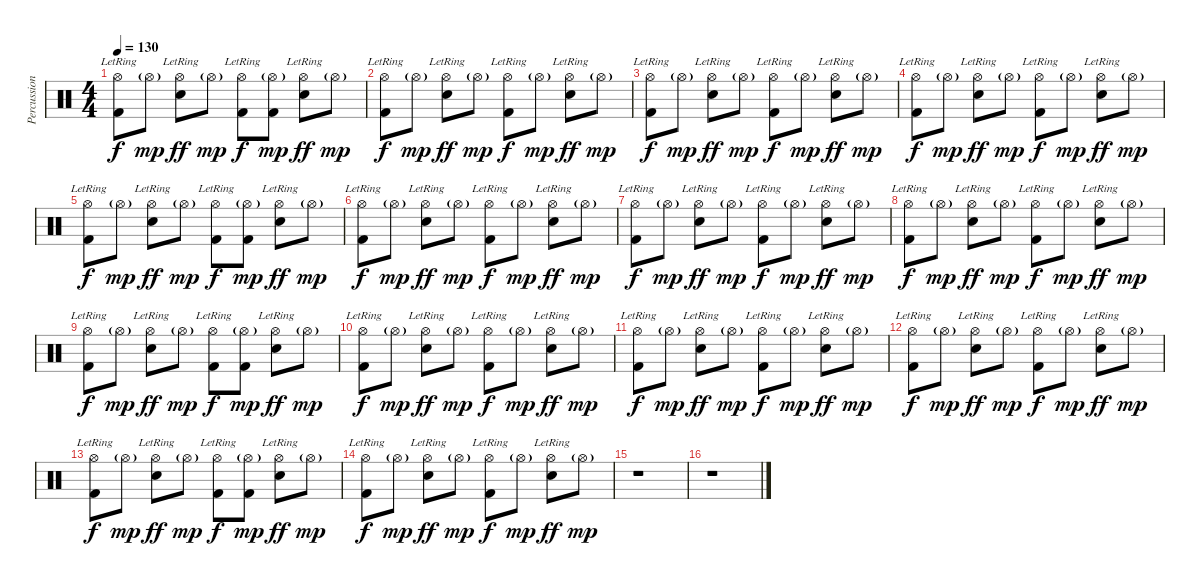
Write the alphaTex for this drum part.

\track ("Percussion" "Percussion") {instrument percussion}
\staff {score}
\articulation defaults
\ts (4 4)
\tempo 130
\clef neutral
\ks c
("Hi-Hat (open)"{lr} "Kick (hit) 2").8{dy f} "Hi-Hat (open)"{g}.8{dy mp} ("Hi-Hat (open)"{lr} "Snare (hit) 2").8{dy ff} "Hi-Hat (open)"{g}.8{dy mp} ("Hi-Hat (open)"{lr} "Kick (hit) 2").8{dy f} ("Hi-Hat (open)"{g} "Kick (hit) 2").8{dy mp} ("Hi-Hat (open)"{lr} "Snare (hit) 2").8{dy ff} "Hi-Hat (open)"{g}.8{dy mp} |
("Hi-Hat (open)"{lr} "Kick (hit) 2").8{dy f} "Hi-Hat (open)"{g}.8{dy mp} ("Hi-Hat (open)"{lr} "Snare (hit) 2").8{dy ff} "Hi-Hat (open)"{g}.8{dy mp} ("Hi-Hat (open)"{lr} "Kick (hit) 2").8{dy f} "Hi-Hat (open)"{g}.8{dy mp} ("Hi-Hat (open)"{lr} "Snare (hit) 2").8{dy ff} "Hi-Hat (open)"{g}.8{dy mp} |
("Hi-Hat (open)"{lr} "Kick (hit) 2").8{dy f} "Hi-Hat (open)"{g}.8{dy mp} ("Hi-Hat (open)"{lr} "Snare (hit) 2").8{dy ff} "Hi-Hat (open)"{g}.8{dy mp} ("Hi-Hat (open)"{lr} "Kick (hit) 2").8{dy f} "Hi-Hat (open)"{g}.8{dy mp} ("Hi-Hat (open)"{lr} "Snare (hit) 2").8{dy ff} "Hi-Hat (open)"{g}.8{dy mp} |
("Hi-Hat (open)"{lr} "Kick (hit) 2").8{dy f} "Hi-Hat (open)"{g}.8{dy mp} ("Hi-Hat (open)"{lr} "Snare (hit) 2").8{dy ff} "Hi-Hat (open)"{g}.8{dy mp} ("Hi-Hat (open)"{lr} "Kick (hit) 2").8{dy f} "Hi-Hat (open)"{g}.8{dy mp} ("Hi-Hat (open)"{lr} "Snare (hit) 2").8{dy ff} "Hi-Hat (open)"{g}.8{dy mp} |
("Hi-Hat (open)"{lr} "Kick (hit) 2").8{dy f} "Hi-Hat (open)"{g}.8{dy mp} ("Hi-Hat (open)"{lr} "Snare (hit) 2").8{dy ff} "Hi-Hat (open)"{g}.8{dy mp} ("Hi-Hat (open)"{lr} "Kick (hit) 2").8{dy f} ("Hi-Hat (open)"{g} "Kick (hit) 2").8{dy mp} ("Hi-Hat (open)"{lr} "Snare (hit) 2").8{dy ff} "Hi-Hat (open)"{g}.8{dy mp} |
("Hi-Hat (open)"{lr} "Kick (hit) 2").8{dy f} "Hi-Hat (open)"{g}.8{dy mp} ("Hi-Hat (open)"{lr} "Snare (hit) 2").8{dy ff} "Hi-Hat (open)"{g}.8{dy mp} ("Hi-Hat (open)"{lr} "Kick (hit) 2").8{dy f} "Hi-Hat (open)"{g}.8{dy mp} ("Hi-Hat (open)"{lr} "Snare (hit) 2").8{dy ff} "Hi-Hat (open)"{g}.8{dy mp} |
("Hi-Hat (open)"{lr} "Kick (hit) 2").8{dy f} "Hi-Hat (open)"{g}.8{dy mp} ("Hi-Hat (open)"{lr} "Snare (hit) 2").8{dy ff} "Hi-Hat (open)"{g}.8{dy mp} ("Hi-Hat (open)"{lr} "Kick (hit) 2").8{dy f} "Hi-Hat (open)"{g}.8{dy mp} ("Hi-Hat (open)"{lr} "Snare (hit) 2").8{dy ff} "Hi-Hat (open)"{g}.8{dy mp} |
("Hi-Hat (open)"{lr} "Kick (hit) 2").8{dy f} "Hi-Hat (open)"{g}.8{dy mp} ("Hi-Hat (open)"{lr} "Snare (hit) 2").8{dy ff} "Hi-Hat (open)"{g}.8{dy mp} ("Hi-Hat (open)"{lr} "Kick (hit) 2").8{dy f} "Hi-Hat (open)"{g}.8{dy mp} ("Hi-Hat (open)"{lr} "Snare (hit) 2").8{dy ff} "Hi-Hat (open)"{g}.8{dy mp} |
("Hi-Hat (open)"{lr} "Kick (hit) 2").8{dy f} "Hi-Hat (open)"{g}.8{dy mp} ("Hi-Hat (open)"{lr} "Snare (hit) 2").8{dy ff} "Hi-Hat (open)"{g}.8{dy mp} ("Hi-Hat (open)"{lr} "Kick (hit) 2").8{dy f} ("Hi-Hat (open)"{g} "Kick (hit) 2").8{dy mp} ("Hi-Hat (open)"{lr} "Snare (hit) 2").8{dy ff} "Hi-Hat (open)"{g}.8{dy mp} |
("Hi-Hat (open)"{lr} "Kick (hit) 2").8{dy f} "Hi-Hat (open)"{g}.8{dy mp} ("Hi-Hat (open)"{lr} "Snare (hit) 2").8{dy ff} "Hi-Hat (open)"{g}.8{dy mp} ("Hi-Hat (open)"{lr} "Kick (hit) 2").8{dy f} "Hi-Hat (open)"{g}.8{dy mp} ("Hi-Hat (open)"{lr} "Snare (hit) 2").8{dy ff} "Hi-Hat (open)"{g}.8{dy mp} |
("Hi-Hat (open)"{lr} "Kick (hit) 2").8{dy f} "Hi-Hat (open)"{g}.8{dy mp} ("Hi-Hat (open)"{lr} "Snare (hit) 2").8{dy ff} "Hi-Hat (open)"{g}.8{dy mp} ("Hi-Hat (open)"{lr} "Kick (hit) 2").8{dy f} "Hi-Hat (open)"{g}.8{dy mp} ("Hi-Hat (open)"{lr} "Snare (hit) 2").8{dy ff} "Hi-Hat (open)"{g}.8{dy mp} |
("Hi-Hat (open)"{lr} "Kick (hit) 2").8{dy f} "Hi-Hat (open)"{g}.8{dy mp} ("Hi-Hat (open)"{lr} "Snare (hit) 2").8{dy ff} "Hi-Hat (open)"{g}.8{dy mp} ("Hi-Hat (open)"{lr} "Kick (hit) 2").8{dy f} "Hi-Hat (open)"{g}.8{dy mp} ("Hi-Hat (open)"{lr} "Snare (hit) 2").8{dy ff} "Hi-Hat (open)"{g}.8{dy mp} |
("Hi-Hat (open)"{lr} "Kick (hit) 2").8{dy f} "Hi-Hat (open)"{g}.8{dy mp} ("Hi-Hat (open)"{lr} "Snare (hit) 2").8{dy ff} "Hi-Hat (open)"{g}.8{dy mp} ("Hi-Hat (open)"{lr} "Kick (hit) 2").8{dy f} ("Hi-Hat (open)"{g} "Kick (hit) 2").8{dy mp} ("Hi-Hat (open)"{lr} "Snare (hit) 2").8{dy ff} "Hi-Hat (open)"{g}.8{dy mp} |
("Hi-Hat (open)"{lr} "Kick (hit) 2").8{dy f} "Hi-Hat (open)"{g}.8{dy mp} ("Hi-Hat (open)"{lr} "Snare (hit) 2").8{dy ff} "Hi-Hat (open)"{g}.8{dy mp} ("Hi-Hat (open)"{lr} "Kick (hit) 2").8{dy f} "Hi-Hat (open)"{g}.8{dy mp} ("Hi-Hat (open)"{lr} "Snare (hit) 2").8{dy ff} "Hi-Hat (open)"{g}.8{dy mp} |
r.1 |
r.1
